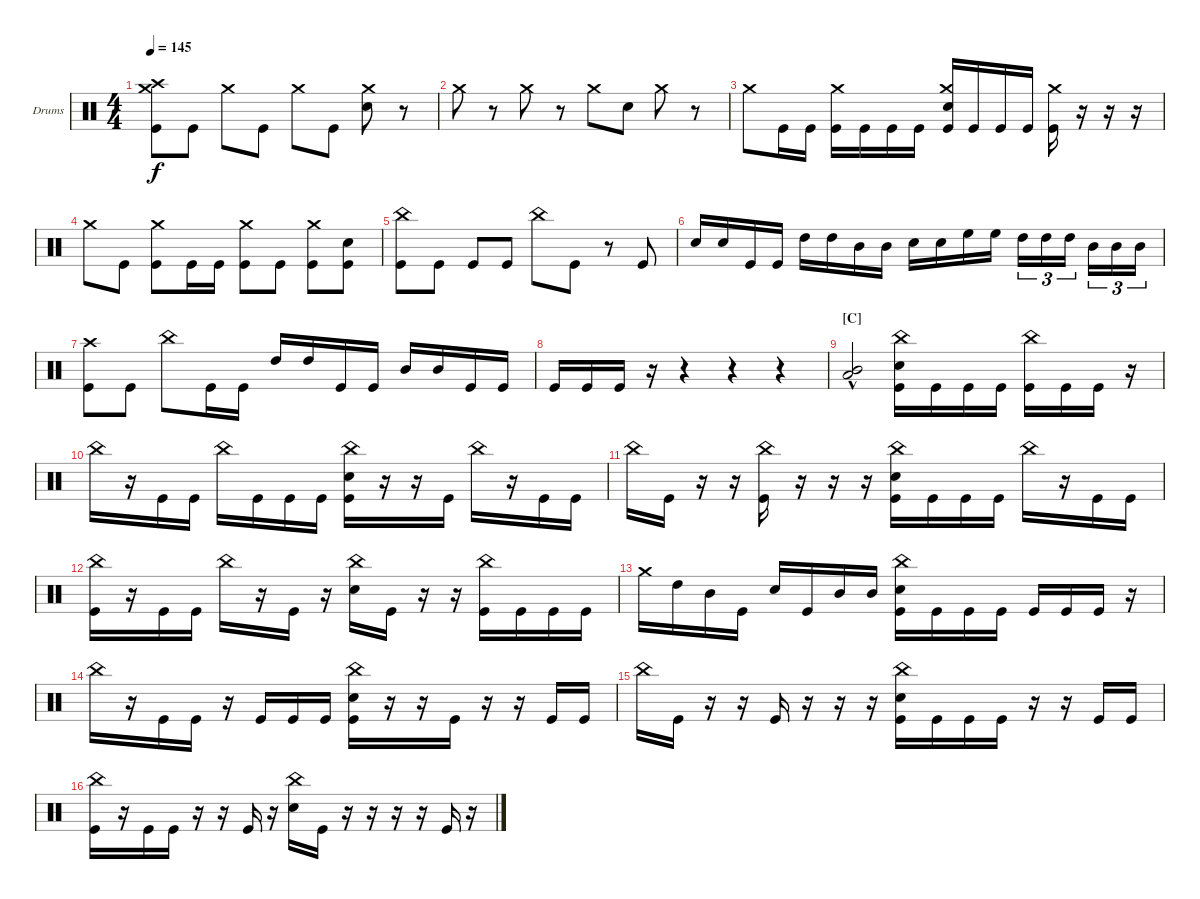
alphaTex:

\defaultSystemsLayout 4
\bracketExtendMode groupsimilarinstruments
\firstSystemTrackNameOrientation horizontal
\otherSystemsTrackNameOrientation horizontal
\track ("Drumkit" "Drums") {instrument percussion}
\staff {score}
\articulation defaults
\ts (4 4)
\tempo 145
\clef neutral
\ks c
("Kick (hit)" "Crash high (hit)" "Crash medium (hit)").8{dy f} "Kick (hit)".8 "Crash medium (hit)".8 "Kick (hit)".8 "Crash medium (hit)".8 "Kick (hit)".8 ("Crash medium (hit)" "Snare (hit) 2").8 r.8 |
"Crash medium (hit)".8 r.8 "Crash medium (hit)".8 r.8 "Crash medium (hit)".8 "Snare (hit) 2".8 "Crash medium (hit)".8 r.8 |
"Crash medium (hit)".8 "Kick (hit)".16 "Kick (hit)".16 ("Crash medium (hit)" "Kick (hit)").16 "Kick (hit)".16 "Kick (hit)".16 "Kick (hit)".16 ("Snare (hit) 2" "Kick (hit)" "Crash medium (hit)").16 "Kick (hit)".16 "Kick (hit)".16 "Kick (hit)".16 ("Kick (hit)" "Crash medium (hit)").16 r.16 r.16 r.16 |
"Crash medium (hit)".8 "Kick (hit)".8 ("Kick (hit)" "Crash medium (hit)").8 "Kick (hit)".16 "Kick (hit)".16 ("Kick (hit)" "Crash medium (hit)").8 "Kick (hit)".8 ("Kick (hit)" "Crash medium (hit)").8 ("Kick (hit)" "Snare (hit) 2").8 |
("Kick (hit)" "China (hit)").8 "Kick (hit)".8 "Kick (hit)".8 "Kick (hit)".8 "China (hit)".8 "Kick (hit)".8 r.8 "Kick (hit)".8 |
"Snare (hit) 2".16 "Snare (hit) 2".16 "Kick (hit)".16 "Kick (hit)".16 "High Tom (hit)".16 "High Tom (hit)".16 "Mid Tom (hit)".16 "Mid Tom (hit)".16 "Snare (hit) 2".16 "Snare (hit) 2".16 "High Floor Tom (hit)".16 "High Floor Tom (hit)".16 "High Tom (hit)".16{tu (3 2)} "High Tom (hit)".16{tu (3 2)} "High Tom (hit)".16{tu (3 2)} "Mid Tom (hit)".16{tu (3 2)} "Mid Tom (hit)".16{tu (3 2)} "Mid Tom (hit)".16{tu (3 2)} |
("Crash high (hit)" "Kick (hit)").8 "Kick (hit)".8 "China (hit)".8 "Kick (hit)".16 "Kick (hit)".16 "High Tom (hit)".16 "High Tom (hit)".16 "Kick (hit)".16 "Kick (hit)".16 "Mid Tom (hit)".16 "Mid Tom (hit)".16 "Kick (hit)".16 "Kick (hit)".16 |
"Kick (hit)".16 "Kick (hit)".16 "Kick (hit)".16 r.16 r.4 r.4 r.4 |
\section ("C" "")
("Mid Tom (hit)"{hac} "Low Tom (hit)"{hac}).2 ("Snare (hit) 2" "Kick (hit)" "China (hit)").16 "Kick (hit)".16 "Kick (hit)".16 "Kick (hit)".16 ("Kick (hit)" "China (hit)").16 "Kick (hit)".16 "Kick (hit)".16 r.16 |
"China (hit)".16 r.16 "Kick (hit)".16 "Kick (hit)".16 "China (hit)".16 "Kick (hit)".16 "Kick (hit)".16 "Kick (hit)".16 ("China (hit)" "Snare (hit) 2" "Kick (hit)").16 r.16 r.16 "Kick (hit)".16 "China (hit)".16 r.16 "Kick (hit)".16 "Kick (hit)".16 |
"China (hit)".16 "Kick (hit)".16 r.16 r.16 ("Kick (hit)" "China (hit)").16 r.16 r.16 r.16 ("China (hit)" "Snare (hit) 2" "Kick (hit)").16 "Kick (hit)".16 "Kick (hit)".16 "Kick (hit)".16 "China (hit)".16 r.16 "Kick (hit)".16 "Kick (hit)".16 |
("Kick (hit)" "China (hit)").16 r.16 "Kick (hit)".16 "Kick (hit)".16 "China (hit)".16 r.16 "Kick (hit)".16 r.16 ("China (hit)" "Snare (hit) 2").16 "Kick (hit)".16 r.16 r.16 ("China (hit)" "Kick (hit)").16 "Kick (hit)".16 "Kick (hit)".16 "Kick (hit)".16 |
"Crash medium (hit)".16 "High Tom (hit)".16 "Mid Tom (hit)".16 "Kick (hit)".16 "Snare (hit) 2".16 "Kick (hit)".16 "Mid Tom (hit)".16 "Mid Tom (hit)".16 ("Snare (hit) 2" "Kick (hit)" "China (hit)").16 "Kick (hit)".16 "Kick (hit)".16 "Kick (hit)".16 "Kick (hit)".16 "Kick (hit)".16 "Kick (hit)".16 r.16 |
"China (hit)".16 r.16 "Kick (hit)".16 "Kick (hit)".16 r.16 "Kick (hit)".16 "Kick (hit)".16 "Kick (hit)".16 ("China (hit)" "Snare (hit) 2" "Kick (hit)").16 r.16 r.16 "Kick (hit)".16 r.16 r.16 "Kick (hit)".16 "Kick (hit)".16 |
"China (hit)".16 "Kick (hit)".16 r.16 r.16 "Kick (hit)".16 r.16 r.16 r.16 ("China (hit)" "Snare (hit) 2" "Kick (hit)").16 "Kick (hit)".16 "Kick (hit)".16 "Kick (hit)".16 r.16 r.16 "Kick (hit)".16 "Kick (hit)".16 |
("Kick (hit)" "China (hit)").16 r.16 "Kick (hit)".16 "Kick (hit)".16 r.16 r.16 "Kick (hit)".16 r.16 ("China (hit)" "Snare (hit) 2").16 "Kick (hit)".16 r.16 r.16 r.16 r.16 "Kick (hit)".16 r.16
